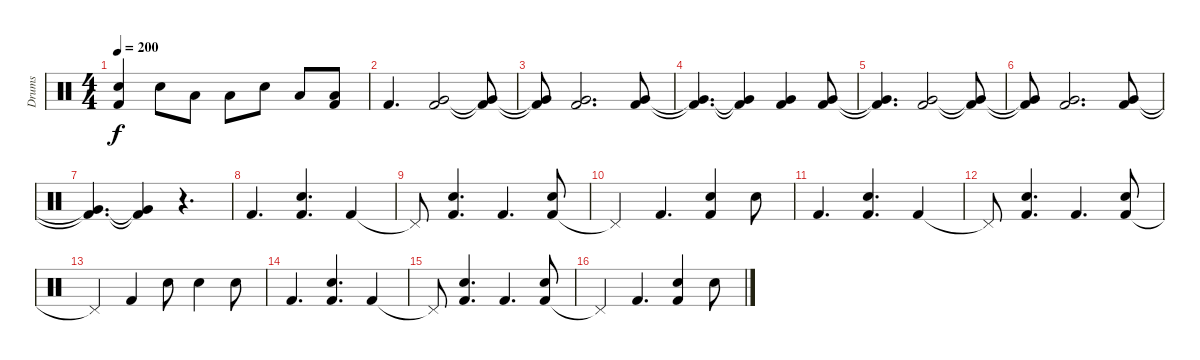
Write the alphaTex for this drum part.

\track ("Drums" "Drums") {instrument percussion}
\staff {score}
\articulation defaults
\ts (4 4)
\tempo 200
\clef neutral
\ks c
("Kick (hit) 2"{t} "Snare (hit) 2"{t}).4{dy f} "Snare (hit) 2".8 "Low Tom (hit)".8 "Low Tom (hit)".8 "Snare (hit) 2".8 "Low Tom (hit)".8 ("Low Tom (hit)" "Kick (hit) 2").8 |
"Kick (hit) 2".4{d} ("Very Low Tom (hit)" "Kick (hit) 2").2 ("Very Low Tom (hit)"{t} "Kick (hit) 2"{t}).8 |
("Very Low Tom (hit)"{t} "Kick (hit) 2"{t}).8 ("Very Low Tom (hit)" "Kick (hit) 2").2{d} ("Very Low Tom (hit)" "Kick (hit) 2").8 |
("Very Low Tom (hit)"{t} "Kick (hit) 2"{t}).4{d} ("Very Low Tom (hit)"{t} "Kick (hit) 2"{t}).4 ("Very Low Tom (hit)" "Kick (hit) 2").4 ("Very Low Tom (hit)" "Kick (hit) 2").8 |
("Very Low Tom (hit)"{t} "Kick (hit) 2"{t}).4{d} ("Very Low Tom (hit)" "Kick (hit) 2").2 ("Very Low Tom (hit)"{t} "Kick (hit) 2"{t}).8 |
("Very Low Tom (hit)"{t} "Kick (hit) 2"{t}).8 ("Very Low Tom (hit)" "Kick (hit) 2").2{d} ("Very Low Tom (hit)" "Kick (hit) 2").8 |
("Very Low Tom (hit)"{t} "Kick (hit) 2"{t}).4{d} ("Very Low Tom (hit)"{t} "Kick (hit) 2"{t}).4 r.4{d} |
"Kick (hit) 2".4{d} ("Kick (hit) 2" "Snare (hit) 2").4{d} "Kick (hit) 2".4 |
"Pedal Hi-Hat (hit)"{t}.8 ("Kick (hit) 2" "Snare (hit) 2").4{d} "Kick (hit) 2".4{d} ("Kick (hit) 2" "Snare (hit) 2").8 |
"Pedal Hi-Hat (hit)"{t}.4 "Kick (hit) 2".4{d} ("Kick (hit) 2" "Snare (hit) 2").4 "Snare (hit) 2".8 |
"Kick (hit) 2".4{d} ("Kick (hit) 2" "Snare (hit) 2").4{d} "Kick (hit) 2".4 |
"Pedal Hi-Hat (hit)"{t}.8 ("Kick (hit) 2" "Snare (hit) 2").4{d} "Kick (hit) 2".4{d} ("Kick (hit) 2" "Snare (hit) 2").8 |
"Pedal Hi-Hat (hit)"{t}.4 "Kick (hit) 2".4 "Snare (hit) 2".8 "Snare (hit) 2".4 "Snare (hit) 2".8 |
"Kick (hit) 2".4{d} ("Kick (hit) 2" "Snare (hit) 2").4{d} "Kick (hit) 2".4 |
"Pedal Hi-Hat (hit)"{t}.8 ("Kick (hit) 2" "Snare (hit) 2").4{d} "Kick (hit) 2".4{d} ("Kick (hit) 2" "Snare (hit) 2").8 |
"Pedal Hi-Hat (hit)"{t}.4 "Kick (hit) 2".4{d} ("Kick (hit) 2" "Snare (hit) 2").4 "Snare (hit) 2".8
